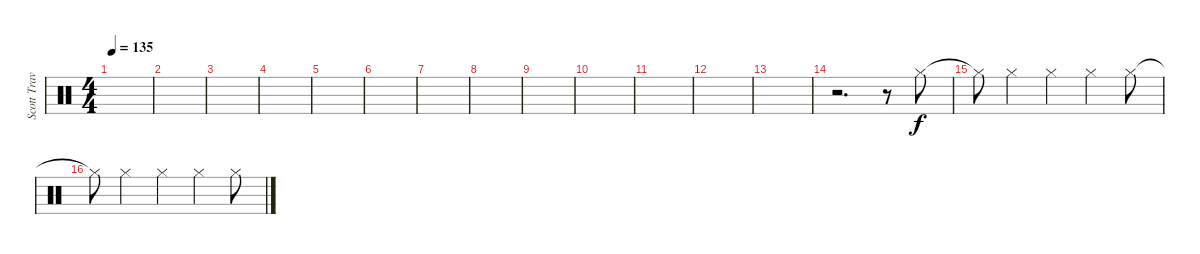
\track ("Scott Travis" "Scott Trav") {instrument percussion}
\staff {score}
\articulation defaults
\ts (4 4)
\tempo 135
\clef neutral
\ks c
|
|
|
|
|
|
|
|
|
|
|
|
|
r.2{d} r.8 "Hi-Hat (closed)".8 |
"Hi-Hat (closed)"{t}.8 "Hi-Hat (closed)".4 "Hi-Hat (closed)".4 "Hi-Hat (closed)".4 "Hi-Hat (closed)".8 |
"Hi-Hat (closed)"{t}.8 "Hi-Hat (closed)".4 "Hi-Hat (closed)".4 "Hi-Hat (closed)".4 "Hi-Hat (closed)".8
